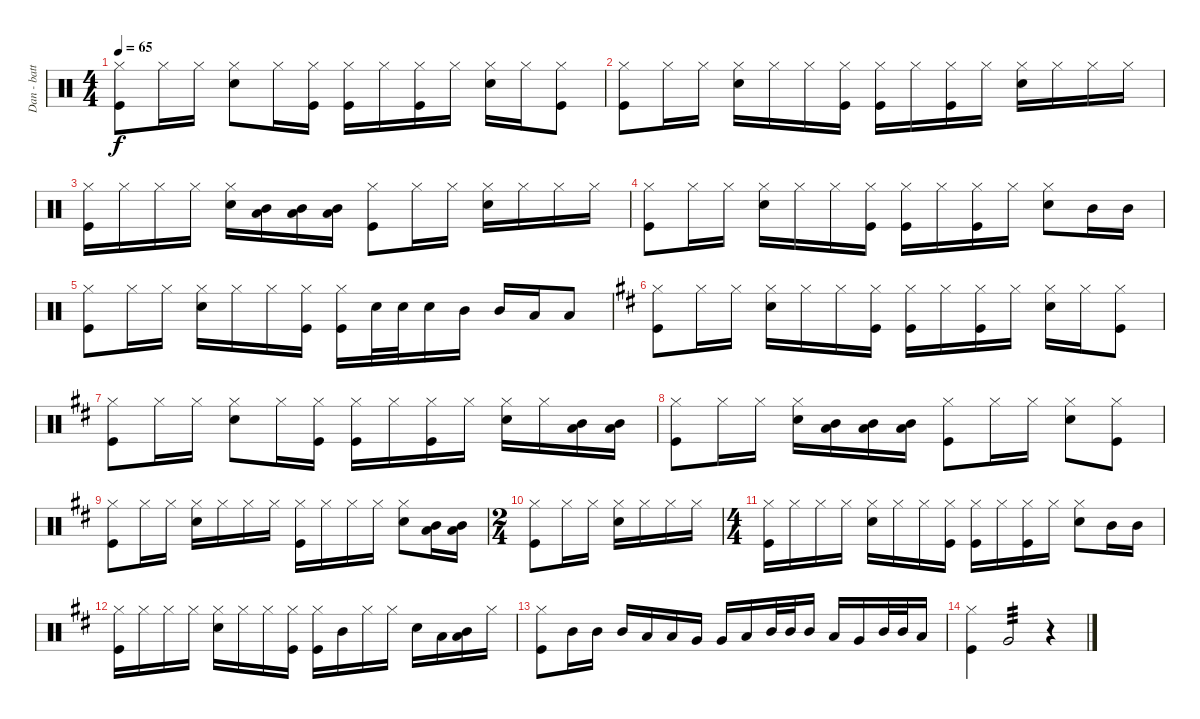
\track ("Dan - batterie" "Dan - batt") {instrument percussion}
\staff {score}
\articulation defaults
\ts (4 4)
\tempo 65
\clef neutral
\ks c
("Hi-Hat (closed)" "Kick (hit)").8{dy f} "Hi-Hat (closed)".16 "Hi-Hat (closed)".16 ("Hi-Hat (closed)" "Snare (hit) 2").8 "Hi-Hat (closed)".16 ("Hi-Hat (closed)" "Kick (hit)").16 ("Hi-Hat (closed)" "Kick (hit)").16 "Hi-Hat (closed)".16 ("Hi-Hat (closed)" "Kick (hit)").16 "Hi-Hat (closed)".16 ("Hi-Hat (closed)" "Snare (hit) 2").16 "Hi-Hat (closed)".16 ("Hi-Hat (closed)" "Kick (hit)").8 |
("Hi-Hat (closed)" "Kick (hit)").8 "Hi-Hat (closed)".16 "Hi-Hat (closed)".16 ("Hi-Hat (closed)" "Snare (hit) 2").16 "Hi-Hat (closed)".16 "Hi-Hat (closed)".16 ("Hi-Hat (closed)" "Kick (hit)").16 ("Hi-Hat (closed)" "Kick (hit)").16 "Hi-Hat (closed)".16 ("Hi-Hat (closed)" "Kick (hit)").16 "Hi-Hat (closed)".16 ("Hi-Hat (closed)" "Snare (hit) 2").16 "Hi-Hat (closed)".16 "Hi-Hat (closed)".16 "Hi-Hat (closed)".16 |
("Hi-Hat (closed)" "Kick (hit)").16 "Hi-Hat (closed)".16 "Hi-Hat (closed)".16 "Hi-Hat (closed)".16 ("Hi-Hat (closed)" "Snare (hit) 2").16 ("Mid Tom (hit)" "Low Tom (hit)").16 ("Mid Tom (hit)" "Low Tom (hit)").16 ("Mid Tom (hit)" "Low Tom (hit)").16 ("Hi-Hat (closed)" "Kick (hit)").8 "Hi-Hat (closed)".16 "Hi-Hat (closed)".16 ("Hi-Hat (closed)" "Snare (hit) 2").16 "Hi-Hat (closed)".16 "Hi-Hat (closed)".16 "Hi-Hat (closed)".16 |
("Hi-Hat (closed)" "Kick (hit)").8 "Hi-Hat (closed)".16 "Hi-Hat (closed)".16 ("Hi-Hat (closed)" "Snare (hit) 2").16 "Hi-Hat (closed)".16 "Hi-Hat (closed)".16 ("Hi-Hat (closed)" "Kick (hit)").16 ("Hi-Hat (closed)" "Kick (hit)").16 "Hi-Hat (closed)".16 ("Hi-Hat (closed)" "Kick (hit)").16 "Hi-Hat (closed)".16 ("Hi-Hat (closed)" "Snare (hit) 2").8 "Mid Tom (hit)".16 "Mid Tom (hit)".16 |
("Hi-Hat (closed)" "Kick (hit)").8 "Hi-Hat (closed)".16 "Hi-Hat (closed)".16 ("Hi-Hat (closed)" "Snare (hit) 2").16 "Hi-Hat (closed)".16 "Hi-Hat (closed)".16 ("Hi-Hat (closed)" "Kick (hit)").16 ("Hi-Hat (closed)" "Kick (hit)").16 "Snare (hit) 2".32 "Snare (hit) 2".32 "Snare (hit) 2".16 "Mid Tom (hit)".16 "Mid Tom (hit)".16 "Low Tom (hit)".16 "Low Tom (hit)".8 |
\ks d
("Hi-Hat (closed)" "Kick (hit)").8 "Hi-Hat (closed)".16 "Hi-Hat (closed)".16 ("Hi-Hat (closed)" "Snare (hit) 2").16 "Hi-Hat (closed)".16 "Hi-Hat (closed)".16 ("Hi-Hat (closed)" "Kick (hit)").16 ("Hi-Hat (closed)" "Kick (hit)").16 "Hi-Hat (closed)".16 ("Hi-Hat (closed)" "Kick (hit)").16 "Hi-Hat (closed)".16 ("Hi-Hat (closed)" "Snare (hit) 2").16 "Hi-Hat (closed)".16 ("Hi-Hat (closed)" "Kick (hit)").8 |
("Hi-Hat (closed)" "Kick (hit)").8 "Hi-Hat (closed)".16 "Hi-Hat (closed)".16 ("Hi-Hat (closed)" "Snare (hit) 2").8 "Hi-Hat (closed)".16 ("Hi-Hat (closed)" "Kick (hit)").16 ("Hi-Hat (closed)" "Kick (hit)").16 "Hi-Hat (closed)".16 ("Hi-Hat (closed)" "Kick (hit)").16 "Hi-Hat (closed)".16 ("Hi-Hat (closed)" "Snare (hit) 2").16 "Hi-Hat (closed)".16 ("Mid Tom (hit)" "Low Tom (hit)").16 ("Mid Tom (hit)" "Low Tom (hit)").16 |
("Hi-Hat (closed)" "Kick (hit)").8 "Hi-Hat (closed)".16 "Hi-Hat (closed)".16 ("Hi-Hat (closed)" "Snare (hit) 2").16 ("Mid Tom (hit)" "Low Tom (hit)").16 ("Mid Tom (hit)" "Low Tom (hit)").16 ("Mid Tom (hit)" "Low Tom (hit)").16 ("Hi-Hat (closed)" "Kick (hit)").8 "Hi-Hat (closed)".16 "Hi-Hat (closed)".16 ("Hi-Hat (closed)" "Snare (hit) 2").8 ("Hi-Hat (closed)" "Kick (hit)").8 |
("Hi-Hat (closed)" "Kick (hit)").8 "Hi-Hat (closed)".16 "Hi-Hat (closed)".16 ("Hi-Hat (closed)" "Snare (hit) 2").16 "Hi-Hat (closed)".16 "Hi-Hat (closed)".16 "Hi-Hat (closed)".16 ("Hi-Hat (closed)" "Kick (hit)").16 "Hi-Hat (closed)".16 "Hi-Hat (closed)".16 "Hi-Hat (closed)".16 ("Hi-Hat (closed)" "Snare (hit) 2").8 ("Mid Tom (hit)" "Low Tom (hit)").16 ("Mid Tom (hit)" "Low Tom (hit)").16 |
\ts (2 4)
("Hi-Hat (closed)" "Kick (hit)").8 "Hi-Hat (closed)".16 "Hi-Hat (closed)".16 ("Hi-Hat (closed)" "Snare (hit) 2").16 "Hi-Hat (closed)".16 "Hi-Hat (closed)".16 "Hi-Hat (closed)".16 |
\ts (4 4)
("Hi-Hat (closed)" "Kick (hit)").16 "Hi-Hat (closed)".16 "Hi-Hat (closed)".16 "Hi-Hat (closed)".16 ("Hi-Hat (closed)" "Snare (hit) 2").16 "Hi-Hat (closed)".16 "Hi-Hat (closed)".16 ("Hi-Hat (closed)" "Kick (hit)").16 ("Hi-Hat (closed)" "Kick (hit)").16 "Hi-Hat (closed)".16 ("Hi-Hat (closed)" "Kick (hit)").16 "Hi-Hat (closed)".16 ("Hi-Hat (closed)" "Snare (hit) 2").8 "Mid Tom (hit)".16 "Mid Tom (hit)".16 |
("Hi-Hat (closed)" "Kick (hit)").16 "Hi-Hat (closed)".16 "Hi-Hat (closed)".16 "Hi-Hat (closed)".16 ("Hi-Hat (closed)" "Snare (hit) 2").16 "Hi-Hat (closed)".16 "Hi-Hat (closed)".16 ("Hi-Hat (closed)" "Kick (hit)").16 ("Hi-Hat (closed)" "Kick (hit)").16 "Mid Tom (hit)".16 "Hi-Hat (closed)".16 "Hi-Hat (closed)".16 "Snare (hit) 2".16 "Low Tom (hit)".16 ("Mid Tom (hit)" "Low Tom (hit)").16 "Hi-Hat (closed)".16 |
("Hi-Hat (closed)" "Kick (hit)").8 "Mid Tom (hit)".16 "Mid Tom (hit)".16 "Mid Tom (hit)".16 "Low Tom (hit)".16 "Low Tom (hit)".16 "Very Low Tom (hit)".16 "Very Low Tom (hit)".16 "Low Floor Tom (hit)".16 "Mid Tom (hit)".32 "Mid Tom (hit)".32 "Mid Tom (hit)".16 "Low Tom (hit)".16 "Very Low Tom (hit)".16 "Mid Tom (hit)".32 "Mid Tom (hit)".32 "Low Tom (hit)".16 |
("Hi-Hat (closed)" "Kick (hit)").4 "Very Low Tom (hit)".2{tp 3} r.4
